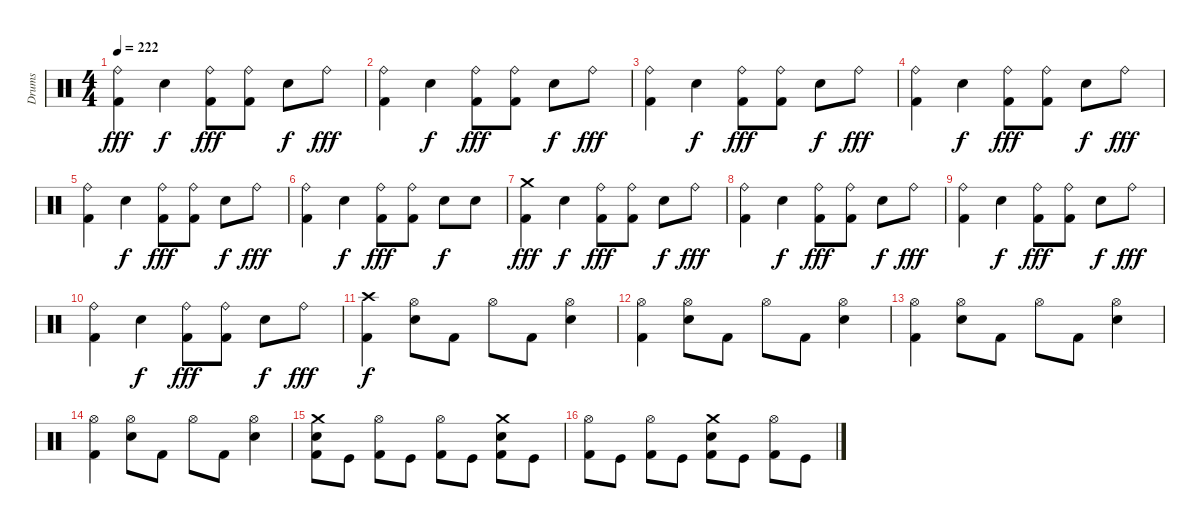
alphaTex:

\track ("Drums" "Drums") {instrument percussion}
\staff {score}
\articulation defaults
\ts (4 4)
\tempo 222
\clef neutral
\ks c
("Kick (hit) 2" "Ride (bell)").4{dy fff} "Electric Snare (hit)".4{dy f} ("Kick (hit) 2" "Ride (bell)").8{dy fff} ("Kick (hit) 2" "Ride (bell)").8 "Electric Snare (hit)".8{dy f} "Ride (bell)".8{dy fff} |
("Kick (hit) 2" "Ride (bell)").4 "Electric Snare (hit)".4{dy f} ("Kick (hit) 2" "Ride (bell)").8{dy fff} ("Kick (hit) 2" "Ride (bell)").8 "Electric Snare (hit)".8{dy f} "Ride (bell)".8{dy fff} |
("Kick (hit) 2" "Ride (bell)").4 "Electric Snare (hit)".4{dy f} ("Kick (hit) 2" "Ride (bell)").8{dy fff} ("Kick (hit) 2" "Ride (bell)").8 "Electric Snare (hit)".8{dy f} "Ride (bell)".8{dy fff} |
("Kick (hit) 2" "Ride (bell)").4 "Electric Snare (hit)".4{dy f} ("Kick (hit) 2" "Ride (bell)").8{dy fff} ("Kick (hit) 2" "Ride (bell)").8 "Electric Snare (hit)".8{dy f} "Ride (bell)".8{dy fff} |
("Kick (hit) 2" "Ride (bell)").4 "Electric Snare (hit)".4{dy f} ("Kick (hit) 2" "Ride (bell)").8{dy fff} ("Kick (hit) 2" "Ride (bell)").8 "Electric Snare (hit)".8{dy f} "Ride (bell)".8{dy fff} |
("Kick (hit) 2" "Ride (bell)").4 "Electric Snare (hit)".4{dy f} ("Kick (hit) 2" "Ride (bell)").8{dy fff} ("Kick (hit) 2" "Ride (bell)").8 "Electric Snare (hit)".8{dy f} "Electric Snare (hit)".8 |
("Kick (hit) 2" "Crash medium (hit)").4{dy fff} "Electric Snare (hit)".4{dy f} ("Kick (hit) 2" "Ride (bell)").8{dy fff} ("Kick (hit) 2" "Ride (bell)").8 "Electric Snare (hit)".8{dy f} "Ride (bell)".8{dy fff} |
("Kick (hit) 2" "Ride (bell)").4 "Electric Snare (hit)".4{dy f} ("Kick (hit) 2" "Ride (bell)").8{dy fff} ("Kick (hit) 2" "Ride (bell)").8 "Electric Snare (hit)".8{dy f} "Ride (bell)".8{dy fff} |
("Kick (hit) 2" "Ride (bell)").4 "Electric Snare (hit)".4{dy f} ("Kick (hit) 2" "Ride (bell)").8{dy fff} ("Kick (hit) 2" "Ride (bell)").8 "Electric Snare (hit)".8{dy f} "Ride (bell)".8{dy fff} |
("Kick (hit) 2" "Ride (bell)").4 "Electric Snare (hit)".4{dy f} ("Kick (hit) 2" "Ride (bell)").8{dy fff} ("Kick (hit) 2" "Ride (bell)").8 "Electric Snare (hit)".8{dy f} "Ride (bell)".8{dy fff} |
("Kick (hit) 2" "Crash high (hit)").4{dy f} ("Electric Snare (hit)" "Hi-Hat (open)").8 "Kick (hit) 2".8 "Hi-Hat (open)".8 "Kick (hit) 2".8 ("Electric Snare (hit)" "Hi-Hat (open)").4 |
("Kick (hit) 2" "Hi-Hat (open)").4 ("Electric Snare (hit)" "Hi-Hat (open)").8 "Kick (hit) 2".8 "Hi-Hat (open)".8 "Kick (hit) 2".8 ("Electric Snare (hit)" "Hi-Hat (open)").4 |
("Kick (hit) 2" "Hi-Hat (open)").4 ("Electric Snare (hit)" "Hi-Hat (open)").8 "Kick (hit) 2".8 "Hi-Hat (open)".8 "Kick (hit) 2".8 ("Electric Snare (hit)" "Hi-Hat (open)").4 |
("Kick (hit) 2" "Hi-Hat (open)").4 ("Electric Snare (hit)" "Hi-Hat (open)").8 "Kick (hit) 2".8 "Hi-Hat (open)".8 "Kick (hit) 2".8 ("Electric Snare (hit)" "Hi-Hat (open)").4 |
("Kick (hit) 2" "Electric Snare (hit)" "Crash medium (hit)").8 "Kick (hit)".8 ("Kick (hit) 2" "Hi-Hat (open)").8 "Kick (hit)".8 ("Kick (hit) 2" "Hi-Hat (open)").8 "Kick (hit)".8 ("Kick (hit) 2" "Electric Snare (hit)" "Crash medium (hit)").8 "Kick (hit)".8 |
("Kick (hit) 2" "Hi-Hat (open)").8 "Kick (hit)".8 ("Kick (hit) 2" "Hi-Hat (open)").8 "Kick (hit)".8 ("Kick (hit) 2" "Electric Snare (hit)" "Crash medium (hit)").8 "Kick (hit)".8 ("Kick (hit) 2" "Hi-Hat (open)").8 "Kick (hit)".8
